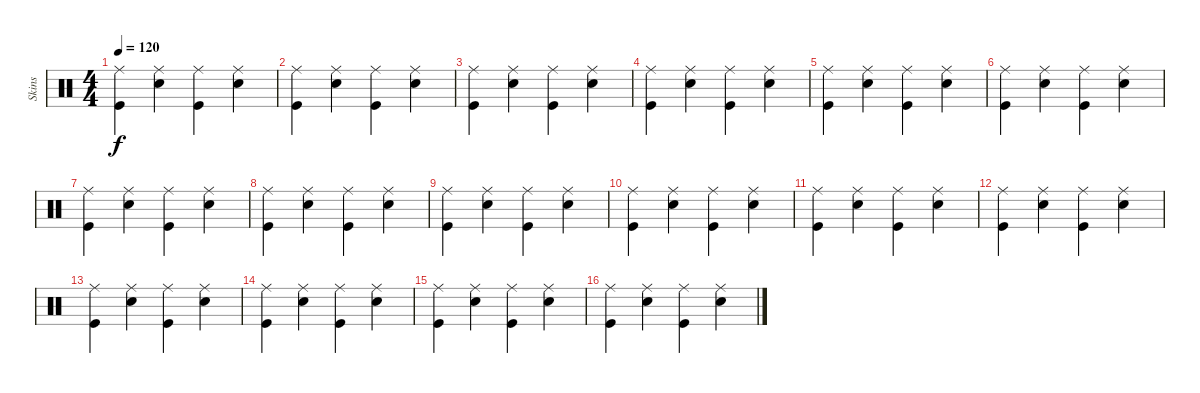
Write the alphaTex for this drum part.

\track ("Skins" "Skins") {instrument percussion}
\staff {score}
\articulation defaults
\ts (4 4)
\tempo 120
\clef neutral
\ks c
("Kick (hit)" "Ride (middle)").4{dy f} ("Snare (hit) 2" "Ride (middle)").4 ("Kick (hit)" "Ride (middle)").4 ("Snare (hit) 2" "Ride (middle)").4 |
("Kick (hit)" "Ride (middle)").4 ("Snare (hit) 2" "Ride (middle)").4 ("Kick (hit)" "Ride (middle)").4 ("Snare (hit) 2" "Ride (middle)").4 |
("Kick (hit)" "Ride (middle)").4 ("Snare (hit) 2" "Ride (middle)").4 ("Kick (hit)" "Ride (middle)").4 ("Snare (hit) 2" "Ride (middle)").4 |
("Kick (hit)" "Ride (middle)").4 ("Snare (hit) 2" "Ride (middle)").4 ("Kick (hit)" "Ride (middle)").4 ("Snare (hit) 2" "Ride (middle)").4 |
("Kick (hit)" "Ride (middle)").4 ("Snare (hit) 2" "Ride (middle)").4 ("Kick (hit)" "Ride (middle)").4 ("Snare (hit) 2" "Ride (middle)").4 |
("Kick (hit)" "Ride (middle)").4 ("Snare (hit) 2" "Ride (middle)").4 ("Kick (hit)" "Ride (middle)").4 ("Snare (hit) 2" "Ride (middle)").4 |
("Kick (hit)" "Ride (middle)").4 ("Snare (hit) 2" "Ride (middle)").4 ("Kick (hit)" "Ride (middle)").4 ("Snare (hit) 2" "Ride (middle)").4 |
("Kick (hit)" "Ride (middle)").4 ("Snare (hit) 2" "Ride (middle)").4 ("Kick (hit)" "Ride (middle)").4 ("Snare (hit) 2" "Ride (middle)").4 |
("Kick (hit)" "Ride (middle)").4 ("Snare (hit) 2" "Ride (middle)").4 ("Kick (hit)" "Ride (middle)").4 ("Snare (hit) 2" "Ride (middle)").4 |
("Kick (hit)" "Ride (middle)").4 ("Snare (hit) 2" "Ride (middle)").4 ("Kick (hit)" "Ride (middle)").4 ("Snare (hit) 2" "Ride (middle)").4 |
("Kick (hit)" "Ride (middle)").4 ("Snare (hit) 2" "Ride (middle)").4 ("Kick (hit)" "Ride (middle)").4 ("Snare (hit) 2" "Ride (middle)").4 |
("Kick (hit)" "Ride (middle)").4 ("Snare (hit) 2" "Ride (middle)").4 ("Kick (hit)" "Ride (middle)").4 ("Snare (hit) 2" "Ride (middle)").4 |
("Kick (hit)" "Ride (middle)").4 ("Snare (hit) 2" "Ride (middle)").4 ("Kick (hit)" "Ride (middle)").4 ("Snare (hit) 2" "Ride (middle)").4 |
("Kick (hit)" "Ride (middle)").4 ("Snare (hit) 2" "Ride (middle)").4 ("Kick (hit)" "Ride (middle)").4 ("Snare (hit) 2" "Ride (middle)").4 |
("Kick (hit)" "Ride (middle)").4 ("Snare (hit) 2" "Ride (middle)").4 ("Kick (hit)" "Ride (middle)").4 ("Snare (hit) 2" "Ride (middle)").4 |
("Kick (hit)" "Ride (middle)").4 ("Snare (hit) 2" "Ride (middle)").4 ("Kick (hit)" "Ride (middle)").4 ("Snare (hit) 2" "Ride (middle)").4
